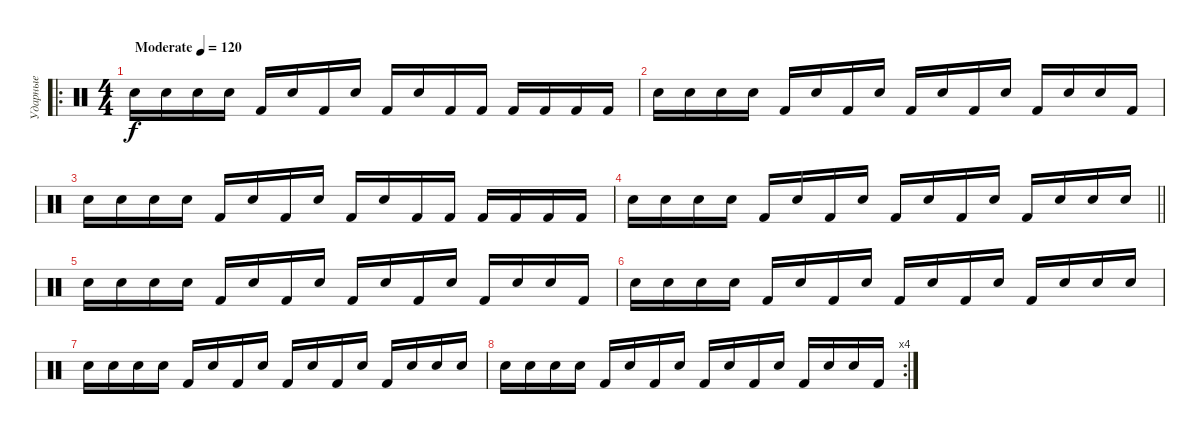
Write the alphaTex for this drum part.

\track ("Ударные" "Ударные") {instrument percussion}
\staff {score}
\articulation defaults
\ro
\ts (4 4)
\tempo (120 "Moderate")
\clef neutral
\ks c "Electric Snare (hit)".16{dy f} "Electric Snare (hit)".16 "Electric Snare (hit)".16 "Electric Snare (hit)".16 "Kick (hit) 2".16 "Electric Snare (hit)".16 "Kick (hit) 2".16 "Electric Snare (hit)".16 "Kick (hit) 2".16 "Electric Snare (hit)".16 "Kick (hit) 2".16 "Kick (hit) 2".16 "Kick (hit) 2".16 "Kick (hit) 2".16 "Kick (hit) 2".16 "Kick (hit) 2".16
|
"Electric Snare (hit)".16 "Electric Snare (hit)".16 "Electric Snare (hit)".16 "Electric Snare (hit)".16 "Kick (hit) 2".16 "Electric Snare (hit)".16 "Kick (hit) 2".16 "Electric Snare (hit)".16 "Kick (hit) 2".16 "Electric Snare (hit)".16 "Kick (hit) 2".16 "Electric Snare (hit)".16 "Kick (hit) 2".16 "Electric Snare (hit)".16 "Electric Snare (hit)".16 "Kick (hit) 2".16 |
"Electric Snare (hit)".16 "Electric Snare (hit)".16 "Electric Snare (hit)".16 "Electric Snare (hit)".16 "Kick (hit) 2".16 "Electric Snare (hit)".16 "Kick (hit) 2".16 "Electric Snare (hit)".16 "Kick (hit) 2".16 "Electric Snare (hit)".16 "Kick (hit) 2".16 "Kick (hit) 2".16 "Kick (hit) 2".16 "Kick (hit) 2".16 "Kick (hit) 2".16 "Kick (hit) 2".16 |
\barLineRight lightlight "Electric Snare (hit)".16 "Electric Snare (hit)".16 "Electric Snare (hit)".16 "Electric Snare (hit)".16 "Kick (hit) 2".16 "Electric Snare (hit)".16 "Kick (hit) 2".16 "Electric Snare (hit)".16 "Kick (hit) 2".16 "Electric Snare (hit)".16 "Kick (hit) 2".16 "Electric Snare (hit)".16 "Kick (hit) 2".16 "Electric Snare (hit)".16 "Electric Snare (hit)".16 "Electric Snare (hit)".16
|
"Electric Snare (hit)".16 "Electric Snare (hit)".16 "Electric Snare (hit)".16 "Electric Snare (hit)".16 "Kick (hit) 2".16 "Electric Snare (hit)".16 "Kick (hit) 2".16 "Electric Snare (hit)".16 "Kick (hit) 2".16 "Electric Snare (hit)".16 "Kick (hit) 2".16 "Electric Snare (hit)".16 "Kick (hit) 2".16 "Electric Snare (hit)".16 "Electric Snare (hit)".16 "Kick (hit) 2".16 |
"Electric Snare (hit)".16 "Electric Snare (hit)".16 "Electric Snare (hit)".16 "Electric Snare (hit)".16 "Kick (hit) 2".16 "Electric Snare (hit)".16 "Kick (hit) 2".16 "Electric Snare (hit)".16 "Kick (hit) 2".16 "Electric Snare (hit)".16 "Kick (hit) 2".16 "Electric Snare (hit)".16 "Kick (hit) 2".16 "Electric Snare (hit)".16 "Electric Snare (hit)".16 "Electric Snare (hit)".16 |
"Electric Snare (hit)".16 "Electric Snare (hit)".16 "Electric Snare (hit)".16 "Electric Snare (hit)".16 "Kick (hit) 2".16 "Electric Snare (hit)".16 "Kick (hit) 2".16 "Electric Snare (hit)".16 "Kick (hit) 2".16 "Electric Snare (hit)".16 "Kick (hit) 2".16 "Electric Snare (hit)".16 "Kick (hit) 2".16 "Electric Snare (hit)".16 "Electric Snare (hit)".16 "Electric Snare (hit)".16 |
\rc 4 "Electric Snare (hit)".16 "Electric Snare (hit)".16 "Electric Snare (hit)".16 "Electric Snare (hit)".16 "Kick (hit) 2".16 "Electric Snare (hit)".16 "Kick (hit) 2".16 "Electric Snare (hit)".16 "Kick (hit) 2".16 "Electric Snare (hit)".16 "Kick (hit) 2".16 "Electric Snare (hit)".16 "Kick (hit) 2".16 "Electric Snare (hit)".16 "Electric Snare (hit)".16 "Kick (hit) 2".16
